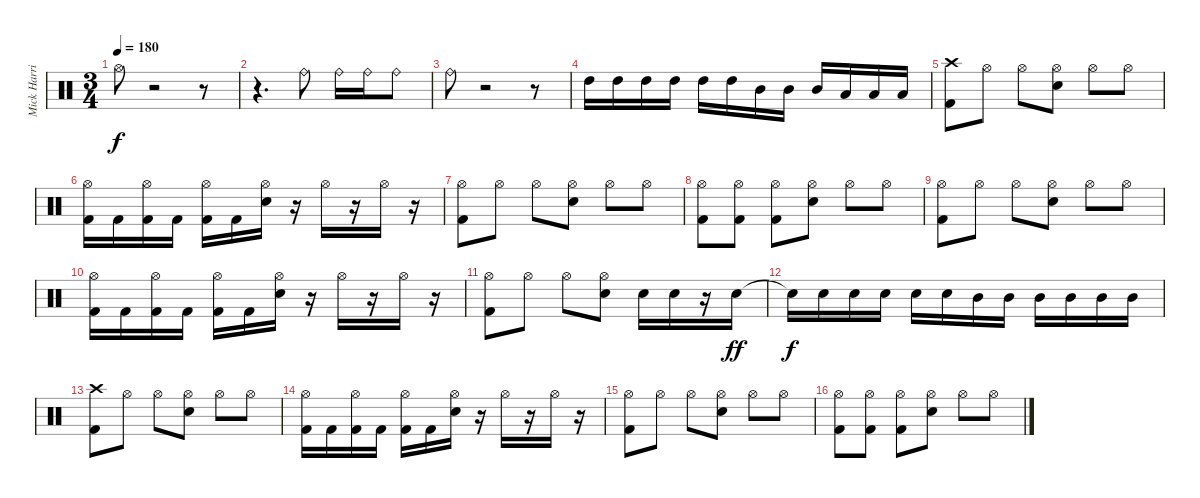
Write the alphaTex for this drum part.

\track ("Mick Harris (Drums)" "Mick Harri") {instrument percussion}
\staff {score}
\articulation defaults
\ts (3 4)
\tempo 180
\clef neutral
\ks c "Hi-Hat (open)".8{dy f volume 0}
r.2 r.8 |
r.4{d} "Ride (bell)".8{volume 16} "Ride (bell)".16 "Ride (bell)".16 "Ride (bell)".8 |
"Ride (bell)".8 r.2 r.8 |
"High Tom (hit)".16 "High Tom (hit)".16 "High Tom (hit)".16 "High Tom (hit)".16 "High Tom (hit)".16 "High Tom (hit)".16 "Mid Tom (hit)".16 "Mid Tom (hit)".16 "Mid Tom (hit)".16 "Low Tom (hit)".16 "Low Tom (hit)".16 "Low Tom (hit)".16 |
("Kick (hit) 2" "Crash high (hit)").8 "Hi-Hat (open)".8 "Hi-Hat (open)".8 ("Electric Snare (hit)" "Hi-Hat (open)").8 "Hi-Hat (open)".8 "Hi-Hat (open)".8 |
("Kick (hit) 2" "Hi-Hat (open)").16 "Kick (hit) 2".16 ("Kick (hit) 2" "Hi-Hat (open)").16 "Kick (hit) 2".16 ("Kick (hit) 2" "Hi-Hat (open)").16 "Kick (hit) 2".16 ("Electric Snare (hit)" "Hi-Hat (open)").16 r.16 "Hi-Hat (open)".16 r.16 "Hi-Hat (open)".16 r.16 |
("Kick (hit) 2" "Hi-Hat (open)").8 "Hi-Hat (open)".8 "Hi-Hat (open)".8 ("Electric Snare (hit)" "Hi-Hat (open)").8 "Hi-Hat (open)".8 "Hi-Hat (open)".8 |
("Kick (hit) 2" "Hi-Hat (open)").8 ("Kick (hit) 2" "Hi-Hat (open)").8 ("Kick (hit) 2" "Hi-Hat (open)").8 ("Electric Snare (hit)" "Hi-Hat (open)").8 "Hi-Hat (open)".8 "Hi-Hat (open)".8 |
("Kick (hit) 2" "Hi-Hat (open)").8 "Hi-Hat (open)".8 "Hi-Hat (open)".8 ("Electric Snare (hit)" "Hi-Hat (open)").8 "Hi-Hat (open)".8 "Hi-Hat (open)".8 |
("Kick (hit) 2" "Hi-Hat (open)").16 "Kick (hit) 2".16 ("Kick (hit) 2" "Hi-Hat (open)").16 "Kick (hit) 2".16 ("Kick (hit) 2" "Hi-Hat (open)").16 "Kick (hit) 2".16 ("Electric Snare (hit)" "Hi-Hat (open)").16 r.16 "Hi-Hat (open)".16 r.16 "Hi-Hat (open)".16 r.16 |
("Kick (hit) 2" "Hi-Hat (open)").8 "Hi-Hat (open)".8 "Hi-Hat (open)".8 ("Electric Snare (hit)" "Hi-Hat (open)").8 "Electric Snare (hit)".16 "Electric Snare (hit)".16 r.16 "Electric Snare (hit)".16{dy ff} |
"Electric Snare (hit)"{t}.16{dy f} "Electric Snare (hit)".16 "Electric Snare (hit)".16 "Electric Snare (hit)".16 "Electric Snare (hit)".16 "Electric Snare (hit)".16 "Mid Tom (hit)".16 "Mid Tom (hit)".16 "Mid Tom (hit)".16 "Mid Tom (hit)".16 "Mid Tom (hit)".16 "Mid Tom (hit)".16 |
("Kick (hit) 2" "Crash high (hit)").8 "Hi-Hat (open)".8 "Hi-Hat (open)".8 ("Electric Snare (hit)" "Hi-Hat (open)").8 "Hi-Hat (open)".8 "Hi-Hat (open)".8 |
("Kick (hit) 2" "Hi-Hat (open)").16 "Kick (hit) 2".16 ("Kick (hit) 2" "Hi-Hat (open)").16 "Kick (hit) 2".16 ("Kick (hit) 2" "Hi-Hat (open)").16 "Kick (hit) 2".16 ("Electric Snare (hit)" "Hi-Hat (open)").16 r.16 "Hi-Hat (open)".16 r.16 "Hi-Hat (open)".16 r.16 |
("Kick (hit) 2" "Hi-Hat (open)").8 "Hi-Hat (open)".8 "Hi-Hat (open)".8 ("Electric Snare (hit)" "Hi-Hat (open)").8 "Hi-Hat (open)".8 "Hi-Hat (open)".8 |
("Kick (hit) 2" "Hi-Hat (open)").8 ("Kick (hit) 2" "Hi-Hat (open)").8 ("Kick (hit) 2" "Hi-Hat (open)").8 ("Electric Snare (hit)" "Hi-Hat (open)").8 "Hi-Hat (open)".8 "Hi-Hat (open)".8
